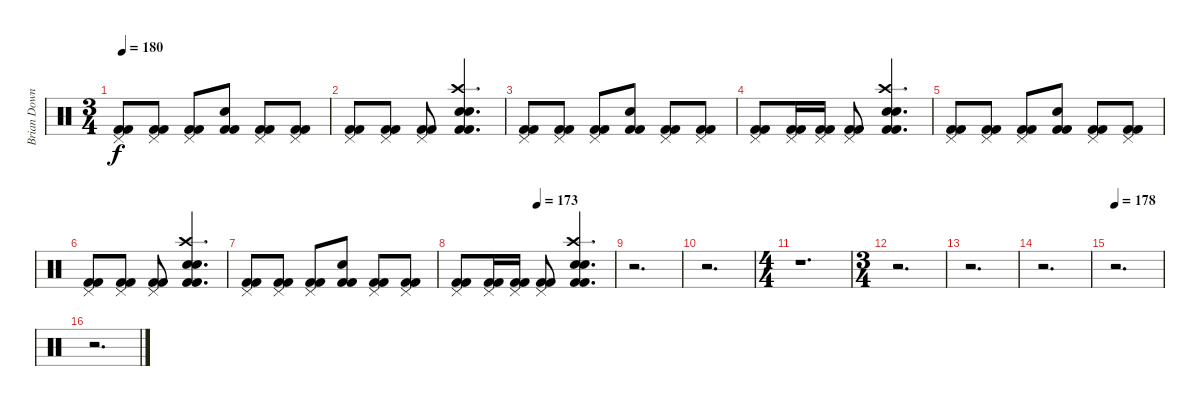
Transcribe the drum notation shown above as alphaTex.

\track ("Brian Downey" "Brian Down") {instrument percussion}
\staff {score}
\articulation defaults
\ts (3 4)
\tempo 180
\clef neutral
\ks c
("Pedal Hi-Hat (hit)" "Kick (hit) 2" "Kick (hit) 2").8{dy f} ("Pedal Hi-Hat (hit)" "Kick (hit) 2" "Kick (hit) 2").8 ("Pedal Hi-Hat (hit)" "Kick (hit) 2" "Kick (hit) 2").8 ("Snare (hit) 2" "Kick (hit) 2" "Kick (hit) 2").8 ("Pedal Hi-Hat (hit)" "Kick (hit) 2" "Kick (hit) 2").8 ("Pedal Hi-Hat (hit)" "Kick (hit) 2" "Kick (hit) 2").8 |
("Pedal Hi-Hat (hit)" "Kick (hit) 2" "Kick (hit) 2").8 ("Pedal Hi-Hat (hit)" "Kick (hit) 2" "Kick (hit) 2").8 ("Pedal Hi-Hat (hit)" "Kick (hit) 2" "Kick (hit) 2").8 ("Crash high (hit)" "Electric Snare (hit)" "Snare (hit) 2" "Kick (hit) 2" "Kick (hit) 2").4{d} |
("Pedal Hi-Hat (hit)" "Kick (hit) 2" "Kick (hit) 2").8 ("Pedal Hi-Hat (hit)" "Kick (hit) 2" "Kick (hit) 2").8 ("Pedal Hi-Hat (hit)" "Kick (hit) 2" "Kick (hit) 2").8 ("Snare (hit) 2" "Kick (hit) 2" "Kick (hit) 2").8 ("Pedal Hi-Hat (hit)" "Kick (hit) 2" "Kick (hit) 2").8 ("Pedal Hi-Hat (hit)" "Kick (hit) 2" "Kick (hit) 2").8 |
("Pedal Hi-Hat (hit)" "Kick (hit) 2" "Kick (hit) 2").8 ("Pedal Hi-Hat (hit)" "Kick (hit) 2" "Kick (hit) 2").16 ("Pedal Hi-Hat (hit)" "Kick (hit) 2" "Kick (hit) 2").16 ("Pedal Hi-Hat (hit)" "Kick (hit) 2" "Kick (hit) 2").8 ("Crash high (hit)" "Electric Snare (hit)" "Snare (hit) 2" "Kick (hit) 2" "Kick (hit) 2").4{d} |
("Pedal Hi-Hat (hit)" "Kick (hit) 2" "Kick (hit) 2").8 ("Pedal Hi-Hat (hit)" "Kick (hit) 2" "Kick (hit) 2").8 ("Pedal Hi-Hat (hit)" "Kick (hit) 2" "Kick (hit) 2").8 ("Snare (hit) 2" "Kick (hit) 2" "Kick (hit) 2").8 ("Pedal Hi-Hat (hit)" "Kick (hit) 2" "Kick (hit) 2").8 ("Pedal Hi-Hat (hit)" "Kick (hit) 2" "Kick (hit) 2").8 |
("Pedal Hi-Hat (hit)" "Kick (hit) 2" "Kick (hit) 2").8 ("Pedal Hi-Hat (hit)" "Kick (hit) 2" "Kick (hit) 2").8 ("Pedal Hi-Hat (hit)" "Kick (hit) 2" "Kick (hit) 2").8 ("Crash high (hit)" "Electric Snare (hit)" "Snare (hit) 2" "Kick (hit) 2" "Kick (hit) 2").4{d} |
("Pedal Hi-Hat (hit)" "Kick (hit) 2" "Kick (hit) 2").8 ("Pedal Hi-Hat (hit)" "Kick (hit) 2" "Kick (hit) 2").8 ("Pedal Hi-Hat (hit)" "Kick (hit) 2" "Kick (hit) 2").8 ("Snare (hit) 2" "Kick (hit) 2" "Kick (hit) 2").8 ("Pedal Hi-Hat (hit)" "Kick (hit) 2" "Kick (hit) 2").8 ("Pedal Hi-Hat (hit)" "Kick (hit) 2" "Kick (hit) 2").8 |
\tempo (173 0.5)
("Pedal Hi-Hat (hit)" "Kick (hit) 2" "Kick (hit) 2").8 ("Pedal Hi-Hat (hit)" "Kick (hit) 2" "Kick (hit) 2").16 ("Pedal Hi-Hat (hit)" "Kick (hit) 2" "Kick (hit) 2").16 ("Pedal Hi-Hat (hit)" "Kick (hit) 2" "Kick (hit) 2").8 ("Crash high (hit)" "Electric Snare (hit)" "Snare (hit) 2" "Kick (hit) 2" "Kick (hit) 2").4{d} |
r.2{d} |
r.2{d} |
\ts (4 4)
r.1{d} |
\ts (3 4)
r.2{d} |
r.2{d} |
r.2{d} |
\tempo 178
r.2{d} |
r.2{d}
